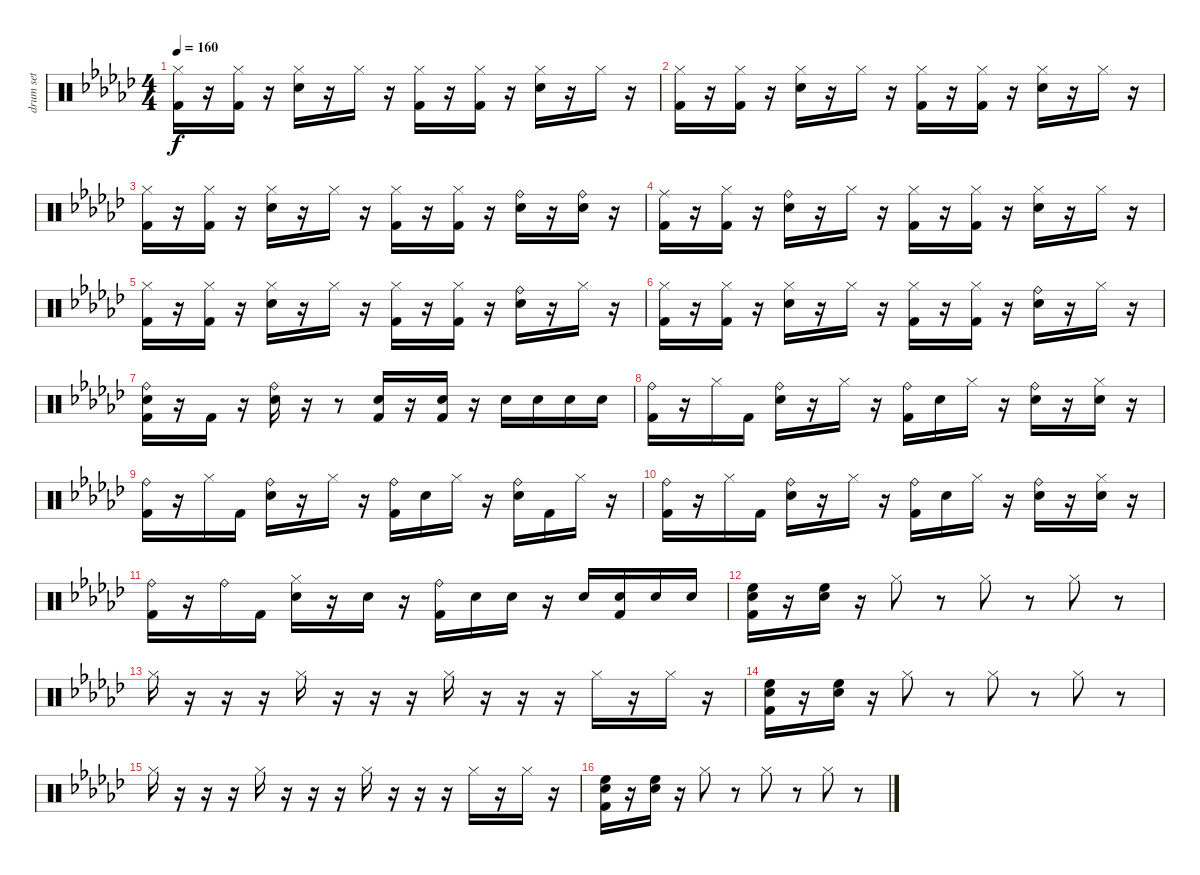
\track ("drum set" "drum set") {instrument percussion}
\staff {score}
\articulation defaults
\ts (4 4)
\tempo 160
\clef neutral
\ks gb
("Hi-Hat (closed)" "Kick (hit) 2").16{dy f} r.16 ("Hi-Hat (closed)" "Kick (hit) 2").16 r.16 ("Hi-Hat (closed)" "Snare (hit) 2").16 r.16 "Hi-Hat (closed)".16 r.16 ("Hi-Hat (closed)" "Kick (hit) 2").16 r.16 ("Hi-Hat (closed)" "Kick (hit) 2").16 r.16 ("Hi-Hat (closed)" "Snare (hit) 2").16 r.16 "Hi-Hat (closed)".16 r.16 |
("Hi-Hat (closed)" "Kick (hit) 2").16 r.16 ("Hi-Hat (closed)" "Kick (hit) 2").16 r.16 ("Hi-Hat (closed)" "Snare (hit) 2").16 r.16 "Hi-Hat (closed)".16 r.16 ("Hi-Hat (closed)" "Kick (hit) 2").16 r.16 ("Hi-Hat (closed)" "Kick (hit) 2").16 r.16 ("Hi-Hat (closed)" "Snare (hit) 2").16 r.16 "Hi-Hat (closed)".16 r.16 |
("Hi-Hat (closed)" "Kick (hit) 2").16 r.16 ("Hi-Hat (closed)" "Kick (hit) 2").16 r.16 ("Hi-Hat (closed)" "Snare (hit) 2").16 r.16 "Hi-Hat (closed)".16 r.16 ("Hi-Hat (closed)" "Kick (hit) 2").16 r.16 ("Hi-Hat (closed)" "Kick (hit) 2").16 r.16 ("Ride (bell)" "Snare (hit) 2").16 r.16 ("Ride (bell)" "Snare (hit) 2").16 r.16 |
("Ride (middle)" "Kick (hit) 2").16 r.16 ("Hi-Hat (closed)" "Kick (hit) 2").16 r.16 ("Ride (bell)" "Snare (hit) 2").16 r.16 "Hi-Hat (closed)".16 r.16 ("Hi-Hat (closed)" "Kick (hit) 2").16 r.16 ("Hi-Hat (closed)" "Kick (hit) 2").16 r.16 ("Hi-Hat (closed)" "Snare (hit) 2").16 r.16 "Hi-Hat (closed)".16 r.16 |
("Hi-Hat (closed)" "Kick (hit) 2").16 r.16 ("Hi-Hat (closed)" "Kick (hit) 2").16 r.16 ("Hi-Hat (closed)" "Snare (hit) 2").16 r.16 "Hi-Hat (closed)".16 r.16 ("Hi-Hat (closed)" "Kick (hit) 2").16 r.16 ("Hi-Hat (closed)" "Kick (hit) 2").16 r.16 ("Ride (bell)" "Snare (hit) 2").16 r.16 "Hi-Hat (closed)".16 r.16 |
("Hi-Hat (closed)" "Kick (hit) 2").16 r.16 ("Hi-Hat (closed)" "Kick (hit) 2").16 r.16 ("Hi-Hat (closed)" "Snare (hit) 2").16 r.16 "Hi-Hat (closed)".16 r.16 ("Hi-Hat (closed)" "Kick (hit) 2").16 r.16 ("Hi-Hat (closed)" "Kick (hit) 2").16 r.16 ("Ride (bell)" "Snare (hit) 2").16 r.16 "Hi-Hat (closed)".16 r.16 |
("Ride (bell)" "Kick (hit) 2" "Snare (hit) 2").16 r.16 "Kick (hit) 2".16 r.16 ("Ride (bell)" "Snare (hit) 2").16 r.16 r.8 ("Snare (hit) 2" "Kick (hit) 2").16 r.16 ("Snare (hit) 2" "Kick (hit) 2").16 r.16 "Snare (hit) 2".16 "Snare (hit) 2".16 "Snare (hit) 2".16 "Snare (hit) 2".16 |
("Ride (bell)" "Kick (hit) 2").16 r.16 "Hi-Hat (closed)".16 "Kick (hit) 2".16 ("Ride (bell)" "Snare (hit) 2").16 r.16 "Hi-Hat (closed)".16 r.16 ("Ride (bell)" "Kick (hit) 2").16 "Snare (hit) 2".16 "Hi-Hat (closed)".16 r.16 ("Ride (bell)" "Snare (hit) 2").16 r.16 ("Hi-Hat (closed)" "Snare (hit) 2").16 r.16 |
("Ride (bell)" "Kick (hit) 2").16 r.16 "Hi-Hat (closed)".16 "Kick (hit) 2".16 ("Ride (bell)" "Snare (hit) 2").16 r.16 "Hi-Hat (closed)".16 r.16 ("Ride (bell)" "Kick (hit) 2").16 "Snare (hit) 2".16 "Hi-Hat (closed)".16 r.16 ("Ride (bell)" "Snare (hit) 2").16 "Kick (hit) 2".16 "Hi-Hat (closed)".16 r.16 |
("Ride (bell)" "Kick (hit) 2").16 r.16 "Hi-Hat (closed)".16 "Kick (hit) 2".16 ("Ride (bell)" "Snare (hit) 2").16 r.16 "Hi-Hat (closed)".16 r.16 ("Ride (bell)" "Kick (hit) 2").16 "Snare (hit) 2".16 "Hi-Hat (closed)".16 r.16 ("Ride (bell)" "Snare (hit) 2").16 r.16 ("Hi-Hat (closed)" "Snare (hit) 2").16 r.16 |
("Ride (bell)" "Kick (hit) 2").16 r.16 "Ride (bell)".16 "Kick (hit) 2".16 ("Hi-Hat (closed)" "Snare (hit) 2").16 r.16 "Snare (hit) 2".16 r.16 ("Ride (bell)" "Kick (hit) 2").16 "Snare (hit) 2".16 "Snare (hit) 2".16 r.16 "Snare (hit) 2".16 ("Snare (hit) 2" "Kick (hit) 2").16 "Snare (hit) 2".16 "Snare (hit) 2".16 |
("High Floor Tom (hit)" "Kick (hit) 2" "Electric Snare (hit)").16 r.16 ("High Floor Tom (hit)" "Electric Snare (hit)").16 r.16 "Hi-Hat (closed)".8 r.8 "Hi-Hat (closed)".8 r.8 "Hi-Hat (closed)".8 r.8 |
"Hi-Hat (closed)".16 r.16 r.16 r.16 "Hi-Hat (closed)".16 r.16 r.16 r.16 "Hi-Hat (closed)".16 r.16 r.16 r.16 "Hi-Hat (closed)".16 r.16 "Hi-Hat (closed)".16 r.16 |
("High Floor Tom (hit)" "Kick (hit) 2" "Electric Snare (hit)").16 r.16 ("High Floor Tom (hit)" "Electric Snare (hit)").16 r.16 "Hi-Hat (closed)".8 r.8 "Hi-Hat (closed)".8 r.8 "Hi-Hat (closed)".8 r.8 |
"Hi-Hat (closed)".16 r.16 r.16 r.16 "Hi-Hat (closed)".16 r.16 r.16 r.16 "Hi-Hat (closed)".16 r.16 r.16 r.16 "Hi-Hat (closed)".16 r.16 "Hi-Hat (closed)".16 r.16 |
("High Floor Tom (hit)" "Kick (hit) 2" "Electric Snare (hit)").16 r.16 ("High Floor Tom (hit)" "Electric Snare (hit)").16 r.16 "Hi-Hat (closed)".8 r.8 "Hi-Hat (closed)".8 r.8 "Hi-Hat (closed)".8 r.8
